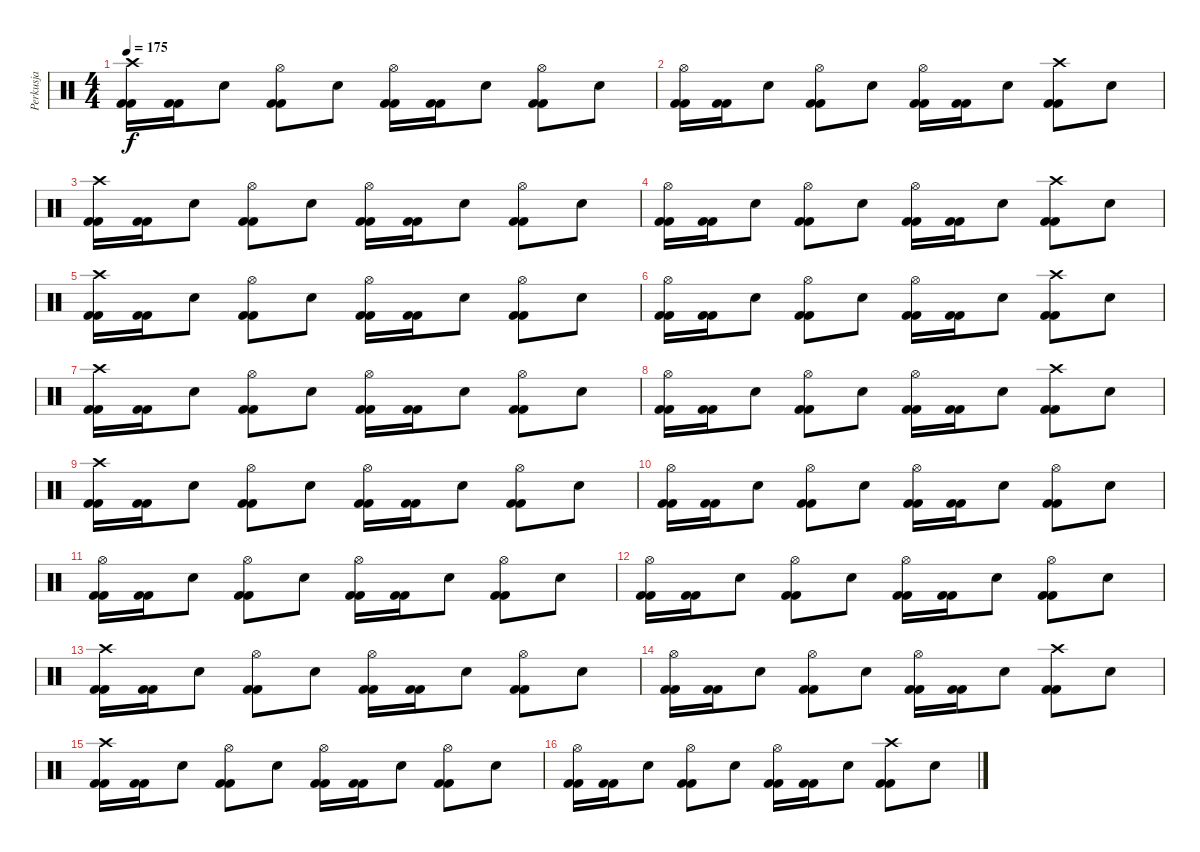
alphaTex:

\track ("Perkusja" "Perkusja") {instrument percussion}
\staff {score}
\articulation defaults
\ts (4 4)
\tempo 175
\clef neutral
\ks c
("Crash high (hit)" "Kick (hit) 2" "Kick (hit) 2").16{dy f} ("Kick (hit) 2" "Kick (hit) 2").16 "Electric Snare (hit)".8 ("Hi-Hat (open)" "Kick (hit) 2" "Kick (hit) 2").8 "Electric Snare (hit)".8 ("Hi-Hat (open)" "Kick (hit) 2" "Kick (hit) 2").16 ("Kick (hit) 2" "Kick (hit) 2").16 "Electric Snare (hit)".8 ("Hi-Hat (open)" "Kick (hit) 2" "Kick (hit) 2").8 "Electric Snare (hit)".8 |
("Hi-Hat (open)" "Kick (hit) 2" "Kick (hit) 2").16 ("Kick (hit) 2" "Kick (hit) 2").16 "Electric Snare (hit)".8 ("Hi-Hat (open)" "Kick (hit) 2" "Kick (hit) 2").8 "Electric Snare (hit)".8 ("Hi-Hat (open)" "Kick (hit) 2" "Kick (hit) 2").16 ("Kick (hit) 2" "Kick (hit) 2").16 "Electric Snare (hit)".8 ("Crash high (hit)" "Kick (hit) 2" "Kick (hit) 2").8 "Electric Snare (hit)".8 |
("Crash high (hit)" "Kick (hit) 2" "Kick (hit) 2").16 ("Kick (hit) 2" "Kick (hit) 2").16 "Electric Snare (hit)".8 ("Hi-Hat (open)" "Kick (hit) 2" "Kick (hit) 2").8 "Electric Snare (hit)".8 ("Hi-Hat (open)" "Kick (hit) 2" "Kick (hit) 2").16 ("Kick (hit) 2" "Kick (hit) 2").16 "Electric Snare (hit)".8 ("Hi-Hat (open)" "Kick (hit) 2" "Kick (hit) 2").8 "Electric Snare (hit)".8 |
("Hi-Hat (open)" "Kick (hit) 2" "Kick (hit) 2").16 ("Kick (hit) 2" "Kick (hit) 2").16 "Electric Snare (hit)".8 ("Hi-Hat (open)" "Kick (hit) 2" "Kick (hit) 2").8 "Electric Snare (hit)".8 ("Hi-Hat (open)" "Kick (hit) 2" "Kick (hit) 2").16 ("Kick (hit) 2" "Kick (hit) 2").16 "Electric Snare (hit)".8 ("Crash high (hit)" "Kick (hit) 2" "Kick (hit) 2").8 "Electric Snare (hit)".8 |
("Crash high (hit)" "Kick (hit) 2" "Kick (hit) 2").16 ("Kick (hit) 2" "Kick (hit) 2").16 "Electric Snare (hit)".8 ("Hi-Hat (open)" "Kick (hit) 2" "Kick (hit) 2").8 "Electric Snare (hit)".8 ("Hi-Hat (open)" "Kick (hit) 2" "Kick (hit) 2").16 ("Kick (hit) 2" "Kick (hit) 2").16 "Electric Snare (hit)".8 ("Hi-Hat (open)" "Kick (hit) 2" "Kick (hit) 2").8 "Electric Snare (hit)".8 |
("Hi-Hat (open)" "Kick (hit) 2" "Kick (hit) 2").16 ("Kick (hit) 2" "Kick (hit) 2").16 "Electric Snare (hit)".8 ("Hi-Hat (open)" "Kick (hit) 2" "Kick (hit) 2").8 "Electric Snare (hit)".8 ("Hi-Hat (open)" "Kick (hit) 2" "Kick (hit) 2").16 ("Kick (hit) 2" "Kick (hit) 2").16 "Electric Snare (hit)".8 ("Crash high (hit)" "Kick (hit) 2" "Kick (hit) 2").8 "Electric Snare (hit)".8 |
("Crash high (hit)" "Kick (hit) 2" "Kick (hit) 2").16 ("Kick (hit) 2" "Kick (hit) 2").16 "Electric Snare (hit)".8 ("Hi-Hat (open)" "Kick (hit) 2" "Kick (hit) 2").8 "Electric Snare (hit)".8 ("Hi-Hat (open)" "Kick (hit) 2" "Kick (hit) 2").16 ("Kick (hit) 2" "Kick (hit) 2").16 "Electric Snare (hit)".8 ("Hi-Hat (open)" "Kick (hit) 2" "Kick (hit) 2").8 "Electric Snare (hit)".8 |
("Hi-Hat (open)" "Kick (hit) 2" "Kick (hit) 2").16 ("Kick (hit) 2" "Kick (hit) 2").16 "Electric Snare (hit)".8 ("Hi-Hat (open)" "Kick (hit) 2" "Kick (hit) 2").8 "Electric Snare (hit)".8 ("Hi-Hat (open)" "Kick (hit) 2" "Kick (hit) 2").16 ("Kick (hit) 2" "Kick (hit) 2").16 "Electric Snare (hit)".8 ("Crash high (hit)" "Kick (hit) 2" "Kick (hit) 2").8 "Electric Snare (hit)".8 |
("Crash high (hit)" "Kick (hit) 2" "Kick (hit) 2").16 ("Kick (hit) 2" "Kick (hit) 2").16 "Electric Snare (hit)".8 ("Hi-Hat (open)" "Kick (hit) 2" "Kick (hit) 2").8 "Electric Snare (hit)".8 ("Hi-Hat (open)" "Kick (hit) 2" "Kick (hit) 2").16 ("Kick (hit) 2" "Kick (hit) 2").16 "Electric Snare (hit)".8 ("Hi-Hat (open)" "Kick (hit) 2" "Kick (hit) 2").8 "Electric Snare (hit)".8 |
("Hi-Hat (open)" "Kick (hit) 2" "Kick (hit) 2").16 ("Kick (hit) 2" "Kick (hit) 2").16 "Electric Snare (hit)".8 ("Hi-Hat (open)" "Kick (hit) 2" "Kick (hit) 2").8 "Electric Snare (hit)".8 ("Hi-Hat (open)" "Kick (hit) 2" "Kick (hit) 2").16 ("Kick (hit) 2" "Kick (hit) 2").16 "Electric Snare (hit)".8 ("Hi-Hat (open)" "Kick (hit) 2" "Kick (hit) 2").8 "Electric Snare (hit)".8 |
("Hi-Hat (open)" "Kick (hit) 2" "Kick (hit) 2").16 ("Kick (hit) 2" "Kick (hit) 2").16 "Electric Snare (hit)".8 ("Hi-Hat (open)" "Kick (hit) 2" "Kick (hit) 2").8 "Electric Snare (hit)".8 ("Hi-Hat (open)" "Kick (hit) 2" "Kick (hit) 2").16 ("Kick (hit) 2" "Kick (hit) 2").16 "Electric Snare (hit)".8 ("Hi-Hat (open)" "Kick (hit) 2" "Kick (hit) 2").8 "Electric Snare (hit)".8 |
("Hi-Hat (open)" "Kick (hit) 2" "Kick (hit) 2").16 ("Kick (hit) 2" "Kick (hit) 2").16 "Electric Snare (hit)".8 ("Hi-Hat (open)" "Kick (hit) 2" "Kick (hit) 2").8 "Electric Snare (hit)".8 ("Hi-Hat (open)" "Kick (hit) 2" "Kick (hit) 2").16 ("Kick (hit) 2" "Kick (hit) 2").16 "Electric Snare (hit)".8 ("Hi-Hat (open)" "Kick (hit) 2" "Kick (hit) 2").8 "Electric Snare (hit)".8 |
("Crash high (hit)" "Kick (hit) 2" "Kick (hit) 2").16 ("Kick (hit) 2" "Kick (hit) 2").16 "Electric Snare (hit)".8 ("Hi-Hat (open)" "Kick (hit) 2" "Kick (hit) 2").8 "Electric Snare (hit)".8 ("Hi-Hat (open)" "Kick (hit) 2" "Kick (hit) 2").16 ("Kick (hit) 2" "Kick (hit) 2").16 "Electric Snare (hit)".8 ("Hi-Hat (open)" "Kick (hit) 2" "Kick (hit) 2").8 "Electric Snare (hit)".8 |
("Hi-Hat (open)" "Kick (hit) 2" "Kick (hit) 2").16 ("Kick (hit) 2" "Kick (hit) 2").16 "Electric Snare (hit)".8 ("Hi-Hat (open)" "Kick (hit) 2" "Kick (hit) 2").8 "Electric Snare (hit)".8 ("Hi-Hat (open)" "Kick (hit) 2" "Kick (hit) 2").16 ("Kick (hit) 2" "Kick (hit) 2").16 "Electric Snare (hit)".8 ("Crash high (hit)" "Kick (hit) 2" "Kick (hit) 2").8 "Electric Snare (hit)".8 |
("Crash high (hit)" "Kick (hit) 2" "Kick (hit) 2").16 ("Kick (hit) 2" "Kick (hit) 2").16 "Electric Snare (hit)".8 ("Hi-Hat (open)" "Kick (hit) 2" "Kick (hit) 2").8 "Electric Snare (hit)".8 ("Hi-Hat (open)" "Kick (hit) 2" "Kick (hit) 2").16 ("Kick (hit) 2" "Kick (hit) 2").16 "Electric Snare (hit)".8 ("Hi-Hat (open)" "Kick (hit) 2" "Kick (hit) 2").8 "Electric Snare (hit)".8 |
("Hi-Hat (open)" "Kick (hit) 2" "Kick (hit) 2").16 ("Kick (hit) 2" "Kick (hit) 2").16 "Electric Snare (hit)".8 ("Hi-Hat (open)" "Kick (hit) 2" "Kick (hit) 2").8 "Electric Snare (hit)".8 ("Hi-Hat (open)" "Kick (hit) 2" "Kick (hit) 2").16 ("Kick (hit) 2" "Kick (hit) 2").16 "Electric Snare (hit)".8 ("Crash high (hit)" "Kick (hit) 2" "Kick (hit) 2").8 "Electric Snare (hit)".8
